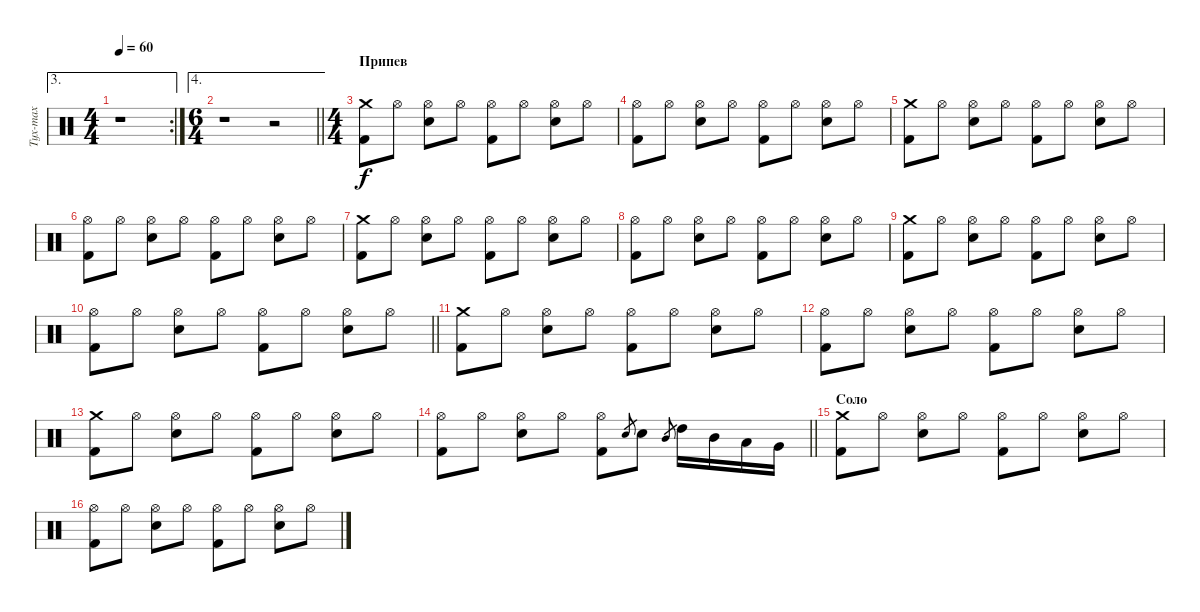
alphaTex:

\track ("Тух-тах" "Тух-тах") {instrument percussion}
\staff {score}
\articulation defaults
\ae 3
\rc 2
\ts (4 4)
\tempo 60
\clef neutral
\ks c
r.1{dy f} |
\ae 4
\ts (6 4)
\barLineRight lightlight
r.1 r.2 |
\ts (4 4)
\section ("" "Припев")
("Crash medium (hit)" "Kick (hit) 2").8 "Hi-Hat (open)".8 ("Hi-Hat (open)" "Snare (hit) 2").8 "Hi-Hat (open)".8 ("Hi-Hat (open)" "Kick (hit) 2").8 "Hi-Hat (open)".8 ("Hi-Hat (open)" "Snare (hit) 2").8 "Hi-Hat (open)".8 |
("Hi-Hat (open)" "Kick (hit) 2").8 "Hi-Hat (open)".8 ("Hi-Hat (open)" "Snare (hit) 2").8 "Hi-Hat (open)".8 ("Hi-Hat (open)" "Kick (hit) 2").8 "Hi-Hat (open)".8 ("Hi-Hat (open)" "Snare (hit) 2").8 "Hi-Hat (open)".8 |
("Crash medium (hit)" "Kick (hit) 2").8 "Hi-Hat (open)".8 ("Hi-Hat (open)" "Snare (hit) 2").8 "Hi-Hat (open)".8 ("Hi-Hat (open)" "Kick (hit) 2").8 "Hi-Hat (open)".8 ("Hi-Hat (open)" "Snare (hit) 2").8 "Hi-Hat (open)".8 |
("Hi-Hat (open)" "Kick (hit) 2").8 "Hi-Hat (open)".8 ("Hi-Hat (open)" "Snare (hit) 2").8 "Hi-Hat (open)".8 ("Hi-Hat (open)" "Kick (hit) 2").8 "Hi-Hat (open)".8 ("Hi-Hat (open)" "Snare (hit) 2").8 "Hi-Hat (open)".8 |
("Crash medium (hit)" "Kick (hit) 2").8 "Hi-Hat (open)".8 ("Hi-Hat (open)" "Snare (hit) 2").8 "Hi-Hat (open)".8 ("Hi-Hat (open)" "Kick (hit) 2").8 "Hi-Hat (open)".8 ("Hi-Hat (open)" "Snare (hit) 2").8 "Hi-Hat (open)".8 |
("Hi-Hat (open)" "Kick (hit) 2").8 "Hi-Hat (open)".8 ("Hi-Hat (open)" "Snare (hit) 2").8 "Hi-Hat (open)".8 ("Hi-Hat (open)" "Kick (hit) 2").8 "Hi-Hat (open)".8 ("Hi-Hat (open)" "Snare (hit) 2").8 "Hi-Hat (open)".8 |
("Crash medium (hit)" "Kick (hit) 2").8 "Hi-Hat (open)".8 ("Hi-Hat (open)" "Snare (hit) 2").8 "Hi-Hat (open)".8 ("Hi-Hat (open)" "Kick (hit) 2").8 "Hi-Hat (open)".8 ("Hi-Hat (open)" "Snare (hit) 2").8 "Hi-Hat (open)".8 |
\barLineRight lightlight
("Hi-Hat (open)" "Kick (hit) 2").8 "Hi-Hat (open)".8 ("Hi-Hat (open)" "Snare (hit) 2").8 "Hi-Hat (open)".8 ("Hi-Hat (open)" "Kick (hit) 2").8 "Hi-Hat (open)".8 ("Hi-Hat (open)" "Snare (hit) 2").8 "Hi-Hat (open)".8 |
("Crash medium (hit)" "Kick (hit) 2").8 "Hi-Hat (open)".8 ("Hi-Hat (open)" "Snare (hit) 2").8 "Hi-Hat (open)".8 ("Hi-Hat (open)" "Kick (hit) 2").8 "Hi-Hat (open)".8 ("Hi-Hat (open)" "Snare (hit) 2").8 "Hi-Hat (open)".8 |
("Hi-Hat (open)" "Kick (hit) 2").8 "Hi-Hat (open)".8 ("Hi-Hat (open)" "Snare (hit) 2").8 "Hi-Hat (open)".8 ("Hi-Hat (open)" "Kick (hit) 2").8 "Hi-Hat (open)".8 ("Hi-Hat (open)" "Snare (hit) 2").8 "Hi-Hat (open)".8 |
("Crash medium (hit)" "Kick (hit) 2").8 "Hi-Hat (open)".8 ("Hi-Hat (open)" "Snare (hit) 2").8 "Hi-Hat (open)".8 ("Hi-Hat (open)" "Kick (hit) 2").8 "Hi-Hat (open)".8 ("Hi-Hat (open)" "Snare (hit) 2").8 "Hi-Hat (open)".8 |
\barLineRight lightlight
("Hi-Hat (open)" "Kick (hit) 2").8 "Hi-Hat (open)".8 ("Hi-Hat (open)" "Snare (hit) 2").8 "Hi-Hat (open)".8 ("Hi-Hat (open)" "Kick (hit) 2").8 "Snare (hit) 2".8{gr} "Snare (hit) 2".8 "Mid Tom (hit)".8{gr} "High Tom (hit)".16 "Mid Tom (hit)".16 "Low Tom (hit)".16 "Very Low Tom (hit)".16 |
\section ("" "Соло")
("Crash medium (hit)" "Kick (hit) 2").8 "Hi-Hat (open)".8 ("Hi-Hat (open)" "Snare (hit) 2").8 "Hi-Hat (open)".8 ("Hi-Hat (open)" "Kick (hit) 2").8 "Hi-Hat (open)".8 ("Hi-Hat (open)" "Snare (hit) 2").8 "Hi-Hat (open)".8 |
("Hi-Hat (open)" "Kick (hit) 2").8 "Hi-Hat (open)".8 ("Hi-Hat (open)" "Snare (hit) 2").8 "Hi-Hat (open)".8 ("Hi-Hat (open)" "Kick (hit) 2").8 "Hi-Hat (open)".8 ("Hi-Hat (open)" "Snare (hit) 2").8 "Hi-Hat (open)".8
